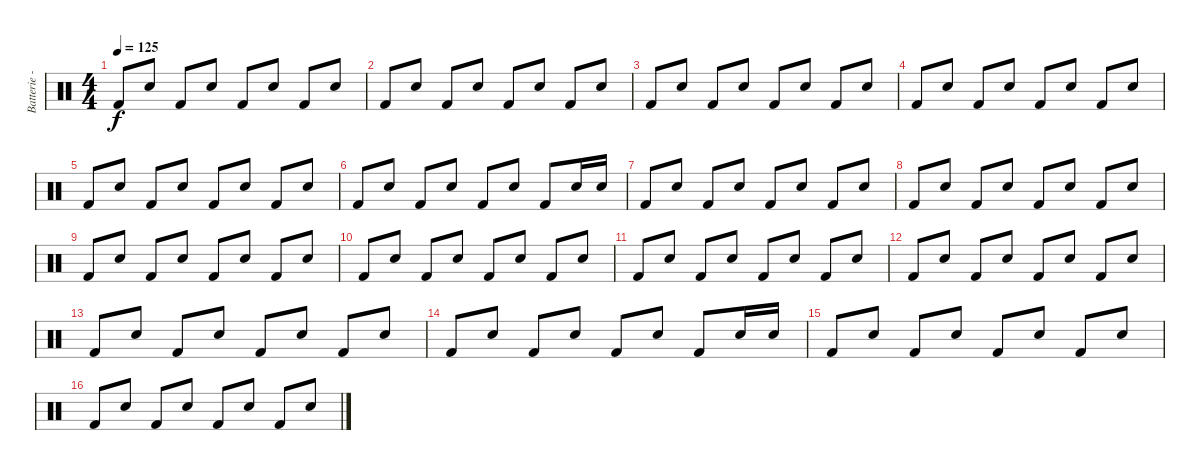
\track ("Batterie - Shane Gaalaas" "Batterie -") {instrument percussion}
\staff {score}
\articulation defaults
\ts (4 4)
\tempo 125
\clef neutral
\ks c "Kick (hit) 2".8{dy f} "Electric Snare (hit)".8 "Kick (hit) 2".8 "Electric Snare (hit)".8 "Kick (hit) 2".8 "Electric Snare (hit)".8 "Kick (hit) 2".8 "Electric Snare (hit)".8
|
"Kick (hit) 2".8 "Electric Snare (hit)".8 "Kick (hit) 2".8 "Electric Snare (hit)".8 "Kick (hit) 2".8 "Electric Snare (hit)".8 "Kick (hit) 2".8 "Electric Snare (hit)".8 |
"Kick (hit) 2".8 "Electric Snare (hit)".8 "Kick (hit) 2".8 "Electric Snare (hit)".8 "Kick (hit) 2".8 "Electric Snare (hit)".8 "Kick (hit) 2".8 "Electric Snare (hit)".8 |
"Kick (hit) 2".8 "Electric Snare (hit)".8 "Kick (hit) 2".8 "Electric Snare (hit)".8 "Kick (hit) 2".8 "Electric Snare (hit)".8 "Kick (hit) 2".8 "Electric Snare (hit)".8 |
"Kick (hit) 2".8 "Electric Snare (hit)".8 "Kick (hit) 2".8 "Electric Snare (hit)".8 "Kick (hit) 2".8 "Electric Snare (hit)".8 "Kick (hit) 2".8 "Electric Snare (hit)".8 |
"Kick (hit) 2".8 "Electric Snare (hit)".8 "Kick (hit) 2".8 "Electric Snare (hit)".8 "Kick (hit) 2".8 "Electric Snare (hit)".8 "Kick (hit) 2".8 "Electric Snare (hit)".16 "Electric Snare (hit)".16 |
"Kick (hit) 2".8 "Electric Snare (hit)".8 "Kick (hit) 2".8 "Electric Snare (hit)".8 "Kick (hit) 2".8 "Electric Snare (hit)".8 "Kick (hit) 2".8 "Electric Snare (hit)".8 |
"Kick (hit) 2".8 "Electric Snare (hit)".8 "Kick (hit) 2".8 "Electric Snare (hit)".8 "Kick (hit) 2".8 "Electric Snare (hit)".8 "Kick (hit) 2".8 "Electric Snare (hit)".8 |
"Kick (hit) 2".8 "Electric Snare (hit)".8 "Kick (hit) 2".8 "Electric Snare (hit)".8 "Kick (hit) 2".8 "Electric Snare (hit)".8 "Kick (hit) 2".8 "Electric Snare (hit)".8 |
"Kick (hit) 2".8 "Electric Snare (hit)".8 "Kick (hit) 2".8 "Electric Snare (hit)".8 "Kick (hit) 2".8 "Electric Snare (hit)".8 "Kick (hit) 2".8 "Electric Snare (hit)".8 |
"Kick (hit) 2".8 "Electric Snare (hit)".8 "Kick (hit) 2".8 "Electric Snare (hit)".8 "Kick (hit) 2".8 "Electric Snare (hit)".8 "Kick (hit) 2".8 "Electric Snare (hit)".8 |
"Kick (hit) 2".8 "Electric Snare (hit)".8 "Kick (hit) 2".8 "Electric Snare (hit)".8 "Kick (hit) 2".8 "Electric Snare (hit)".8 "Kick (hit) 2".8 "Electric Snare (hit)".8 |
"Kick (hit) 2".8 "Electric Snare (hit)".8 "Kick (hit) 2".8 "Electric Snare (hit)".8 "Kick (hit) 2".8 "Electric Snare (hit)".8 "Kick (hit) 2".8 "Electric Snare (hit)".8 |
"Kick (hit) 2".8 "Electric Snare (hit)".8 "Kick (hit) 2".8 "Electric Snare (hit)".8 "Kick (hit) 2".8 "Electric Snare (hit)".8 "Kick (hit) 2".8 "Electric Snare (hit)".16 "Electric Snare (hit)".16 |
"Kick (hit) 2".8 "Electric Snare (hit)".8 "Kick (hit) 2".8 "Electric Snare (hit)".8 "Kick (hit) 2".8 "Electric Snare (hit)".8 "Kick (hit) 2".8 "Electric Snare (hit)".8 |
"Kick (hit) 2".8 "Electric Snare (hit)".8 "Kick (hit) 2".8 "Electric Snare (hit)".8 "Kick (hit) 2".8 "Electric Snare (hit)".8 "Kick (hit) 2".8 "Electric Snare (hit)".8
